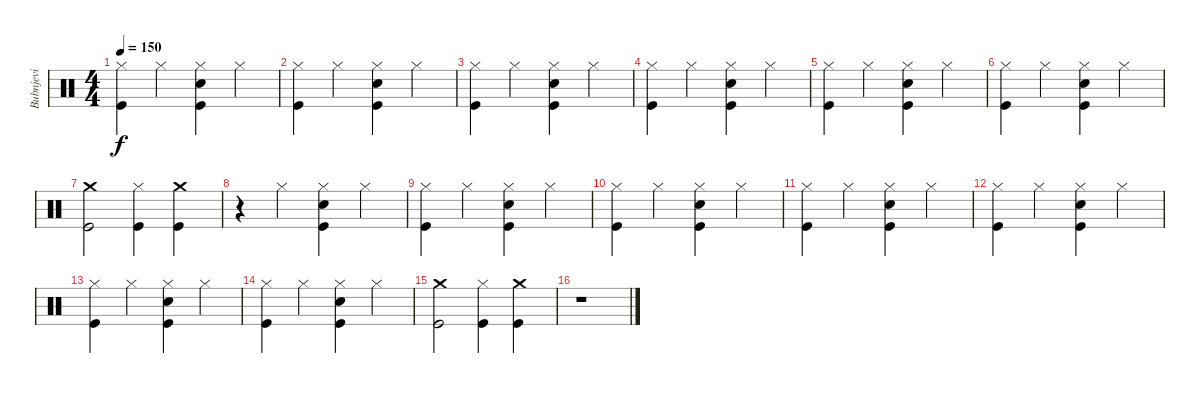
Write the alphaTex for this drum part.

\track ("Bubnjevi" "Bubnjevi") {instrument percussion}
\staff {score}
\articulation defaults
\ts (4 4)
\tempo 150
\clef neutral
\ks c
("Hi-Hat (closed)" "Kick (hit)").4{dy f} "Hi-Hat (closed)".4 ("Snare (hit) 2" "Hi-Hat (closed)" "Kick (hit)").4 "Hi-Hat (closed)".4 |
("Hi-Hat (closed)" "Kick (hit)").4 "Hi-Hat (closed)".4 ("Snare (hit) 2" "Hi-Hat (closed)" "Kick (hit)").4 "Hi-Hat (closed)".4 |
("Hi-Hat (closed)" "Kick (hit)").4 "Hi-Hat (closed)".4 ("Snare (hit) 2" "Hi-Hat (closed)" "Kick (hit)").4 "Hi-Hat (closed)".4 |
("Hi-Hat (closed)" "Kick (hit)").4 "Hi-Hat (closed)".4 ("Snare (hit) 2" "Hi-Hat (closed)" "Kick (hit)").4 "Hi-Hat (closed)".4 |
("Hi-Hat (closed)" "Kick (hit)").4 "Hi-Hat (closed)".4 ("Snare (hit) 2" "Hi-Hat (closed)" "Kick (hit)").4 "Hi-Hat (closed)".4 |
("Hi-Hat (closed)" "Kick (hit)").4 "Hi-Hat (closed)".4 ("Snare (hit) 2" "Hi-Hat (closed)" "Kick (hit)").4 "Hi-Hat (closed)".4 |
("Crash medium (hit)" "Kick (hit)").2 ("Hi-Hat (closed)" "Kick (hit)").4 ("Crash medium (hit)" "Kick (hit)").4 |
r.4 "Hi-Hat (closed)".4 ("Snare (hit) 2" "Hi-Hat (closed)" "Kick (hit)").4 "Hi-Hat (closed)".4 |
("Hi-Hat (closed)" "Kick (hit)").4 "Hi-Hat (closed)".4 ("Snare (hit) 2" "Hi-Hat (closed)" "Kick (hit)").4 "Hi-Hat (closed)".4 |
("Hi-Hat (closed)" "Kick (hit)").4 "Hi-Hat (closed)".4 ("Snare (hit) 2" "Hi-Hat (closed)" "Kick (hit)").4 "Hi-Hat (closed)".4 |
("Hi-Hat (closed)" "Kick (hit)").4 "Hi-Hat (closed)".4 ("Snare (hit) 2" "Hi-Hat (closed)" "Kick (hit)").4 "Hi-Hat (closed)".4 |
("Hi-Hat (closed)" "Kick (hit)").4 "Hi-Hat (closed)".4 ("Snare (hit) 2" "Hi-Hat (closed)" "Kick (hit)").4 "Hi-Hat (closed)".4 |
("Hi-Hat (closed)" "Kick (hit)").4 "Hi-Hat (closed)".4 ("Snare (hit) 2" "Hi-Hat (closed)" "Kick (hit)").4 "Hi-Hat (closed)".4 |
("Hi-Hat (closed)" "Kick (hit)").4 "Hi-Hat (closed)".4 ("Snare (hit) 2" "Hi-Hat (closed)" "Kick (hit)").4 "Hi-Hat (closed)".4 |
("Crash medium (hit)" "Kick (hit)").2 ("Hi-Hat (closed)" "Kick (hit)").4 ("Crash medium (hit)" "Kick (hit)").4 |
r.1
